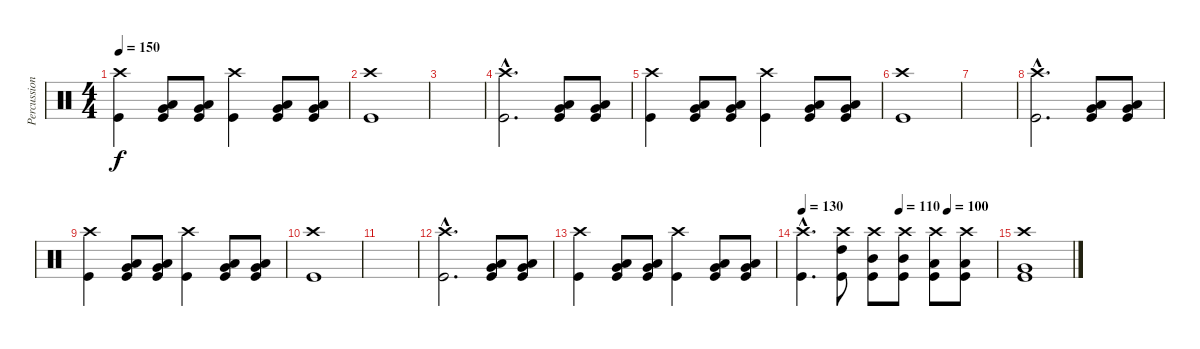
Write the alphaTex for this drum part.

\track ("Percussion" "Percussion") {instrument percussion}
\staff {score}
\articulation defaults
\ts (4 4)
\tempo 150
\clef neutral
\ks c
("Crash high (hit)" "Kick (hit)").4{dy f} ("Low Tom (hit)" "Very Low Tom (hit)" "Kick (hit)").8 ("Low Tom (hit)" "Very Low Tom (hit)" "Kick (hit)").8 ("Crash high (hit)" "Kick (hit)").4 ("Low Tom (hit)" "Very Low Tom (hit)" "Kick (hit)").8 ("Low Tom (hit)" "Very Low Tom (hit)" "Kick (hit)").8 |
("Crash high (hit)" "Kick (hit)").1 |
|
("Crash high (hit)"{hac} "Kick (hit)"{hac}).2{d} ("Low Tom (hit)" "Very Low Tom (hit)" "Kick (hit)").8 ("Low Tom (hit)" "Very Low Tom (hit)" "Kick (hit)").8 |
("Crash high (hit)" "Kick (hit)").4 ("Low Tom (hit)" "Very Low Tom (hit)" "Kick (hit)").8 ("Low Tom (hit)" "Very Low Tom (hit)" "Kick (hit)").8 ("Crash high (hit)" "Kick (hit)").4 ("Low Tom (hit)" "Very Low Tom (hit)" "Kick (hit)").8 ("Low Tom (hit)" "Very Low Tom (hit)" "Kick (hit)").8 |
("Crash high (hit)" "Kick (hit)").1 |
|
("Crash high (hit)"{hac} "Kick (hit)"{hac}).2{d} ("Low Tom (hit)" "Very Low Tom (hit)" "Kick (hit)").8 ("Low Tom (hit)" "Very Low Tom (hit)" "Kick (hit)").8 |
("Crash high (hit)" "Kick (hit)").4 ("Low Tom (hit)" "Very Low Tom (hit)" "Kick (hit)").8 ("Low Tom (hit)" "Very Low Tom (hit)" "Kick (hit)").8 ("Crash high (hit)" "Kick (hit)").4 ("Low Tom (hit)" "Very Low Tom (hit)" "Kick (hit)").8 ("Low Tom (hit)" "Very Low Tom (hit)" "Kick (hit)").8 |
("Crash high (hit)" "Kick (hit)").1 |
|
("Crash high (hit)"{hac} "Kick (hit)"{hac}).2{d} ("Low Tom (hit)" "Very Low Tom (hit)" "Kick (hit)").8 ("Low Tom (hit)" "Very Low Tom (hit)" "Kick (hit)").8 |
("Crash high (hit)" "Kick (hit)").4 ("Low Tom (hit)" "Very Low Tom (hit)" "Kick (hit)").8 ("Low Tom (hit)" "Very Low Tom (hit)" "Kick (hit)").8 ("Crash high (hit)" "Kick (hit)").4 ("Low Tom (hit)" "Very Low Tom (hit)" "Kick (hit)").8 ("Low Tom (hit)" "Very Low Tom (hit)" "Kick (hit)").8 |
\tempo 130
\tempo (110 0.5)
\tempo (100 0.75)
("Crash high (hit)"{hac} "Kick (hit)"{hac}).4{d} ("Crash high (hit)" "High Tom (hit)" "Kick (hit)").8 ("Crash high (hit)" "Mid Tom (hit)" "Kick (hit)").8 ("Crash high (hit)" "Mid Tom (hit)" "Kick (hit)").8 ("Crash high (hit)" "Low Tom (hit)" "Kick (hit)").8 ("Crash high (hit)" "Low Tom (hit)" "Kick (hit)").8 |
("Crash high (hit)" "Very Low Tom (hit)" "Kick (hit)").1
